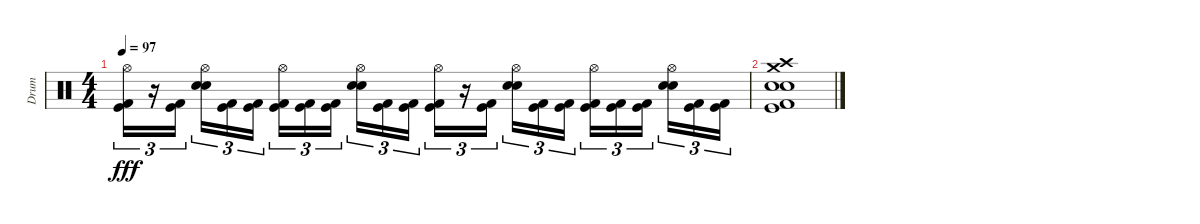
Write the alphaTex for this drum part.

\track ("Drum" "Drum") {instrument percussion}
\staff {score}
\articulation defaults
\ts (4 4)
\tempo 97
\clef neutral
\ks c
("Hi-Hat (open)" "Kick (hit)" "Kick (hit) 2").16{tu (3 2) dy fff} r.16{tu (3 2)} ("Kick (hit)" "Kick (hit) 2").16{tu (3 2)} ("Hi-Hat (open)" "Electric Snare (hit)" "Snare (hit) 2").16{tu (3 2)} ("Kick (hit)" "Kick (hit) 2").16{tu (3 2)} ("Kick (hit)" "Kick (hit) 2").16{tu (3 2)} ("Hi-Hat (open)" "Kick (hit)" "Kick (hit) 2").16{tu (3 2)} ("Kick (hit)" "Kick (hit) 2").16{tu (3 2)} ("Kick (hit)" "Kick (hit) 2").16{tu (3 2)} ("Hi-Hat (open)" "Electric Snare (hit)" "Snare (hit) 2").16{tu (3 2)} ("Kick (hit)" "Kick (hit) 2").16{tu (3 2)} ("Kick (hit)" "Kick (hit) 2").16{tu (3 2)} ("Hi-Hat (open)" "Kick (hit)" "Kick (hit) 2").16{tu (3 2)} r.16{tu (3 2)} ("Kick (hit)" "Kick (hit) 2").16{tu (3 2)} ("Hi-Hat (open)" "Electric Snare (hit)" "Snare (hit) 2").16{tu (3 2)} ("Kick (hit)" "Kick (hit) 2").16{tu (3 2)} ("Kick (hit)" "Kick (hit) 2").16{tu (3 2)} ("Hi-Hat (open)" "Kick (hit)" "Kick (hit) 2").16{tu (3 2)} ("Kick (hit)" "Kick (hit) 2").16{tu (3 2)} ("Kick (hit)" "Kick (hit) 2").16{tu (3 2)} ("Hi-Hat (open)" "Electric Snare (hit)" "Snare (hit) 2").16{tu (3 2)} ("Kick (hit)" "Kick (hit) 2").16{tu (3 2)} ("Kick (hit)" "Kick (hit) 2").16{tu (3 2)} |
("Crash medium (hit)" "Crash high (hit)" "Electric Snare (hit)" "Snare (hit) 2" "Kick (hit)" "Kick (hit) 2").1
